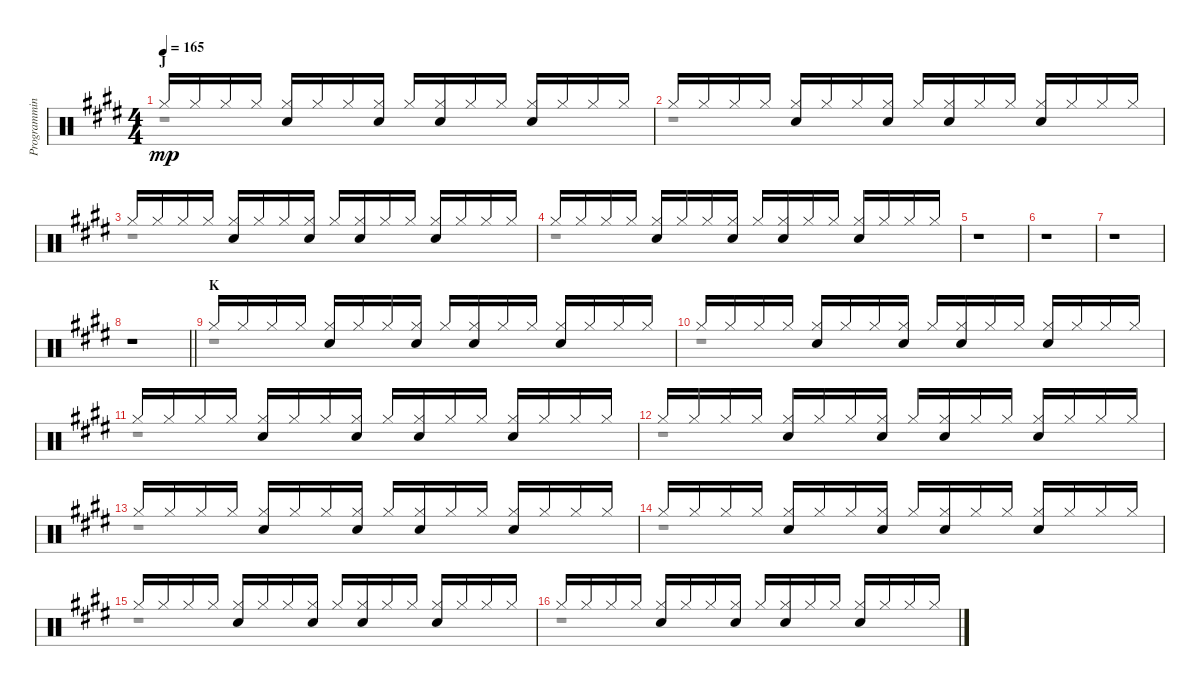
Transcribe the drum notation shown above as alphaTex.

\track ("Programming I" "Programmin") {instrument percussion}
\staff {score}
\articulation defaults
\voice
\ts (4 4)
\section ("" "J")
\tempo 165
\clef neutral
\ks e "Hi-Hat (closed)".16{dy mp} "Hi-Hat (closed)".16 "Hi-Hat (closed)".16 "Hi-Hat (closed)".16
("Hi-Hat (closed)" "Electric Snare (hit)").16 "Hi-Hat (closed)".16 "Hi-Hat (closed)".16 ("Hi-Hat (closed)" "Electric Snare (hit)").16 "Hi-Hat (closed)".16 ("Hi-Hat (closed)" "Electric Snare (hit)").16 "Hi-Hat (closed)".16 "Hi-Hat (closed)".16 ("Hi-Hat (closed)" "Electric Snare (hit)").16 "Hi-Hat (closed)".16 "Hi-Hat (closed)".16 "Hi-Hat (closed)".16 |
"Hi-Hat (closed)".16 "Hi-Hat (closed)".16 "Hi-Hat (closed)".16 "Hi-Hat (closed)".16 ("Hi-Hat (closed)" "Electric Snare (hit)").16 "Hi-Hat (closed)".16 "Hi-Hat (closed)".16 ("Hi-Hat (closed)" "Electric Snare (hit)").16 "Hi-Hat (closed)".16 ("Hi-Hat (closed)" "Electric Snare (hit)").16 "Hi-Hat (closed)".16 "Hi-Hat (closed)".16 ("Hi-Hat (closed)" "Electric Snare (hit)").16 "Hi-Hat (closed)".16 "Hi-Hat (closed)".16 "Hi-Hat (closed)".16 |
"Hi-Hat (closed)".16 "Hi-Hat (closed)".16 "Hi-Hat (closed)".16 "Hi-Hat (closed)".16 ("Hi-Hat (closed)" "Electric Snare (hit)").16 "Hi-Hat (closed)".16 "Hi-Hat (closed)".16 ("Hi-Hat (closed)" "Electric Snare (hit)").16 "Hi-Hat (closed)".16 ("Hi-Hat (closed)" "Electric Snare (hit)").16 "Hi-Hat (closed)".16 "Hi-Hat (closed)".16 ("Hi-Hat (closed)" "Electric Snare (hit)").16 "Hi-Hat (closed)".16 "Hi-Hat (closed)".16 "Hi-Hat (closed)".16 |
"Hi-Hat (closed)".16 "Hi-Hat (closed)".16 "Hi-Hat (closed)".16 "Hi-Hat (closed)".16 ("Hi-Hat (closed)" "Electric Snare (hit)").16 "Hi-Hat (closed)".16 "Hi-Hat (closed)".16 ("Hi-Hat (closed)" "Electric Snare (hit)").16 "Hi-Hat (closed)".16 ("Hi-Hat (closed)" "Electric Snare (hit)").16 "Hi-Hat (closed)".16 "Hi-Hat (closed)".16 ("Hi-Hat (closed)" "Electric Snare (hit)").16 "Hi-Hat (closed)".16 "Hi-Hat (closed)".16 "Hi-Hat (closed)".16 |
r.1 |
r.1 |
r.1 |
\barLineRight lightlight
r.1 |
\section ("" "K")
"Hi-Hat (closed)".16 "Hi-Hat (closed)".16 "Hi-Hat (closed)".16 "Hi-Hat (closed)".16 ("Hi-Hat (closed)" "Electric Snare (hit)").16 "Hi-Hat (closed)".16 "Hi-Hat (closed)".16 ("Hi-Hat (closed)" "Electric Snare (hit)").16 "Hi-Hat (closed)".16 ("Hi-Hat (closed)" "Electric Snare (hit)").16 "Hi-Hat (closed)".16 "Hi-Hat (closed)".16 ("Hi-Hat (closed)" "Electric Snare (hit)").16 "Hi-Hat (closed)".16 "Hi-Hat (closed)".16 "Hi-Hat (closed)".16 |
"Hi-Hat (closed)".16 "Hi-Hat (closed)".16 "Hi-Hat (closed)".16 "Hi-Hat (closed)".16 ("Hi-Hat (closed)" "Electric Snare (hit)").16 "Hi-Hat (closed)".16 "Hi-Hat (closed)".16 ("Hi-Hat (closed)" "Electric Snare (hit)").16 "Hi-Hat (closed)".16 ("Hi-Hat (closed)" "Electric Snare (hit)").16 "Hi-Hat (closed)".16 "Hi-Hat (closed)".16 ("Hi-Hat (closed)" "Electric Snare (hit)").16 "Hi-Hat (closed)".16 "Hi-Hat (closed)".16 "Hi-Hat (closed)".16 |
"Hi-Hat (closed)".16 "Hi-Hat (closed)".16 "Hi-Hat (closed)".16 "Hi-Hat (closed)".16 ("Hi-Hat (closed)" "Electric Snare (hit)").16 "Hi-Hat (closed)".16 "Hi-Hat (closed)".16 ("Hi-Hat (closed)" "Electric Snare (hit)").16 "Hi-Hat (closed)".16 ("Hi-Hat (closed)" "Electric Snare (hit)").16 "Hi-Hat (closed)".16 "Hi-Hat (closed)".16 ("Hi-Hat (closed)" "Electric Snare (hit)").16 "Hi-Hat (closed)".16 "Hi-Hat (closed)".16 "Hi-Hat (closed)".16 |
"Hi-Hat (closed)".16 "Hi-Hat (closed)".16 "Hi-Hat (closed)".16 "Hi-Hat (closed)".16 ("Hi-Hat (closed)" "Electric Snare (hit)").16 "Hi-Hat (closed)".16 "Hi-Hat (closed)".16 ("Hi-Hat (closed)" "Electric Snare (hit)").16 "Hi-Hat (closed)".16 ("Hi-Hat (closed)" "Electric Snare (hit)").16 "Hi-Hat (closed)".16 "Hi-Hat (closed)".16 ("Hi-Hat (closed)" "Electric Snare (hit)").16 "Hi-Hat (closed)".16 "Hi-Hat (closed)".16 "Hi-Hat (closed)".16 |
"Hi-Hat (closed)".16 "Hi-Hat (closed)".16 "Hi-Hat (closed)".16 "Hi-Hat (closed)".16 ("Hi-Hat (closed)" "Electric Snare (hit)").16 "Hi-Hat (closed)".16 "Hi-Hat (closed)".16 ("Hi-Hat (closed)" "Electric Snare (hit)").16 "Hi-Hat (closed)".16 ("Hi-Hat (closed)" "Electric Snare (hit)").16 "Hi-Hat (closed)".16 "Hi-Hat (closed)".16 ("Hi-Hat (closed)" "Electric Snare (hit)").16 "Hi-Hat (closed)".16 "Hi-Hat (closed)".16 "Hi-Hat (closed)".16 |
"Hi-Hat (closed)".16 "Hi-Hat (closed)".16 "Hi-Hat (closed)".16 "Hi-Hat (closed)".16 ("Hi-Hat (closed)" "Electric Snare (hit)").16 "Hi-Hat (closed)".16 "Hi-Hat (closed)".16 ("Hi-Hat (closed)" "Electric Snare (hit)").16 "Hi-Hat (closed)".16 ("Hi-Hat (closed)" "Electric Snare (hit)").16 "Hi-Hat (closed)".16 "Hi-Hat (closed)".16 ("Hi-Hat (closed)" "Electric Snare (hit)").16 "Hi-Hat (closed)".16 "Hi-Hat (closed)".16 "Hi-Hat (closed)".16 |
"Hi-Hat (closed)".16 "Hi-Hat (closed)".16 "Hi-Hat (closed)".16 "Hi-Hat (closed)".16 ("Hi-Hat (closed)" "Electric Snare (hit)").16 "Hi-Hat (closed)".16 "Hi-Hat (closed)".16 ("Hi-Hat (closed)" "Electric Snare (hit)").16 "Hi-Hat (closed)".16 ("Hi-Hat (closed)" "Electric Snare (hit)").16 "Hi-Hat (closed)".16 "Hi-Hat (closed)".16 ("Hi-Hat (closed)" "Electric Snare (hit)").16 "Hi-Hat (closed)".16 "Hi-Hat (closed)".16 "Hi-Hat (closed)".16 |
"Hi-Hat (closed)".16 "Hi-Hat (closed)".16 "Hi-Hat (closed)".16 "Hi-Hat (closed)".16 ("Hi-Hat (closed)" "Electric Snare (hit)").16 "Hi-Hat (closed)".16 "Hi-Hat (closed)".16 ("Hi-Hat (closed)" "Electric Snare (hit)").16 "Hi-Hat (closed)".16 ("Hi-Hat (closed)" "Electric Snare (hit)").16 "Hi-Hat (closed)".16 "Hi-Hat (closed)".16 ("Hi-Hat (closed)" "Electric Snare (hit)").16 "Hi-Hat (closed)".16 "Hi-Hat (closed)".16 "Hi-Hat (closed)".16
\voice
\clef neutral
\ottava regular
\simile none
\ks e
r.1{dy mp} |
r.1 |
r.1 |
r.1 |
r.1 |
r.1 |
r.1 |
\barLineRight lightlight
r.1 |
r.1 |
r.1 |
r.1 |
r.1 |
r.1 |
r.1 |
r.1 |
r.1
